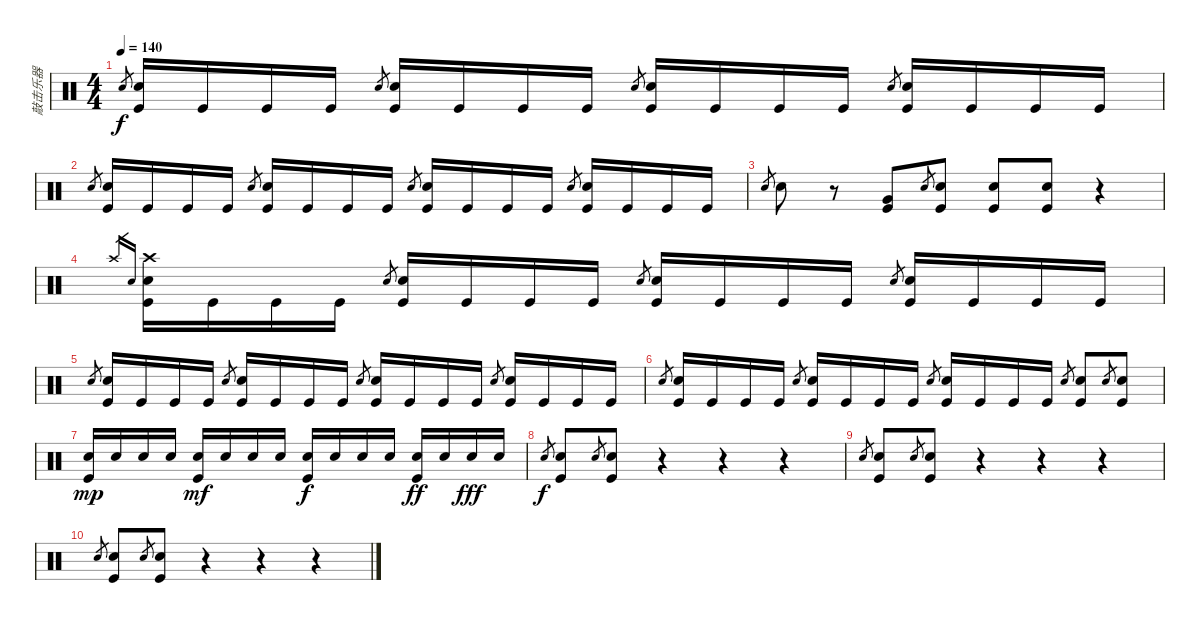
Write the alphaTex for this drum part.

\track ("敲击乐器" "敲击乐器") {instrument percussion}
\staff {score}
\articulation defaults
\ts (4 4)
\tempo 140
\clef neutral
\ks c "Electric Snare (hit)".8{gr dy f}
("Electric Snare (hit)" "Kick (hit)").16 "Kick (hit)".16 "Kick (hit)".16 "Kick (hit)".16 "Electric Snare (hit)".8{gr} ("Electric Snare (hit)" "Kick (hit)").16 "Kick (hit)".16 "Kick (hit)".16 "Kick (hit)".16 "Electric Snare (hit)".8{gr} ("Electric Snare (hit)" "Kick (hit)").16 "Kick (hit)".16 "Kick (hit)".16 "Kick (hit)".16 "Electric Snare (hit)".8{gr} ("Electric Snare (hit)" "Kick (hit)").16 "Kick (hit)".16 "Kick (hit)".16 "Kick (hit)".16 |
"Electric Snare (hit)".8{gr} ("Electric Snare (hit)" "Kick (hit)").16 "Kick (hit)".16 "Kick (hit)".16 "Kick (hit)".16 "Electric Snare (hit)".8{gr} ("Electric Snare (hit)" "Kick (hit)").16 "Kick (hit)".16 "Kick (hit)".16 "Kick (hit)".16 "Electric Snare (hit)".8{gr} ("Electric Snare (hit)" "Kick (hit)").16 "Kick (hit)".16 "Kick (hit)".16 "Kick (hit)".16 "Electric Snare (hit)".8{gr} ("Electric Snare (hit)" "Kick (hit)").16 "Kick (hit)".16 "Kick (hit)".16 "Kick (hit)".16 |
"Electric Snare (hit)".8{gr} "Electric Snare (hit)".8 r.8 ("Very Low Tom (hit)" "Kick (hit)").8 "Electric Snare (hit)".8{gr} ("Electric Snare (hit)" "Kick (hit)").8 ("Electric Snare (hit)" "Kick (hit)").8 ("Electric Snare (hit)" "Kick (hit)").8 r.4 |
"Crash high (hit)".16{gr} "Electric Snare (hit)".16{gr} ("Crash high (hit)" "Electric Snare (hit)" "Kick (hit)").16 "Kick (hit)".16 "Kick (hit)".16 "Kick (hit)".16 "Electric Snare (hit)".8{gr} ("Electric Snare (hit)" "Kick (hit)").16 "Kick (hit)".16 "Kick (hit)".16 "Kick (hit)".16 "Electric Snare (hit)".8{gr} ("Electric Snare (hit)" "Kick (hit)").16 "Kick (hit)".16 "Kick (hit)".16 "Kick (hit)".16 "Electric Snare (hit)".8{gr} ("Electric Snare (hit)" "Kick (hit)").16 "Kick (hit)".16 "Kick (hit)".16 "Kick (hit)".16 |
"Electric Snare (hit)".8{gr} ("Electric Snare (hit)" "Kick (hit)").16 "Kick (hit)".16 "Kick (hit)".16 "Kick (hit)".16 "Electric Snare (hit)".8{gr} ("Electric Snare (hit)" "Kick (hit)").16 "Kick (hit)".16 "Kick (hit)".16 "Kick (hit)".16 "Electric Snare (hit)".8{gr} ("Electric Snare (hit)" "Kick (hit)").16 "Kick (hit)".16 "Kick (hit)".16 "Kick (hit)".16 "Electric Snare (hit)".8{gr} ("Electric Snare (hit)" "Kick (hit)").16 "Kick (hit)".16 "Kick (hit)".16 "Kick (hit)".16 |
"Electric Snare (hit)".8{gr} ("Electric Snare (hit)" "Kick (hit)").16 "Kick (hit)".16 "Kick (hit)".16 "Kick (hit)".16 "Electric Snare (hit)".8{gr} ("Electric Snare (hit)" "Kick (hit)").16 "Kick (hit)".16 "Kick (hit)".16 "Kick (hit)".16 "Electric Snare (hit)".8{gr} ("Electric Snare (hit)" "Kick (hit)").16 "Kick (hit)".16 "Kick (hit)".16 "Kick (hit)".16 "Electric Snare (hit)".8{gr} ("Electric Snare (hit)" "Kick (hit)").8 "Electric Snare (hit)".8{gr} ("Electric Snare (hit)" "Kick (hit)").8 |
("Electric Snare (hit)" "Kick (hit)").16{dy mp} "Electric Snare (hit)".16 "Electric Snare (hit)".16 "Electric Snare (hit)".16 ("Electric Snare (hit)" "Kick (hit)").16{dy mf} "Electric Snare (hit)".16 "Electric Snare (hit)".16 "Electric Snare (hit)".16 ("Electric Snare (hit)" "Kick (hit)").16{dy f} "Electric Snare (hit)".16 "Electric Snare (hit)".16 "Electric Snare (hit)".16 ("Electric Snare (hit)" "Kick (hit)").16{dy ff} "Electric Snare (hit)".16 "Electric Snare (hit)".16{dy fff} "Electric Snare (hit)".16 |
"Electric Snare (hit)".8{gr dy f} ("Electric Snare (hit)" "Kick (hit)").8 "Electric Snare (hit)".8{gr} ("Electric Snare (hit)" "Kick (hit)").8 r.4 r.4 r.4 |
"Electric Snare (hit)".8{gr} ("Electric Snare (hit)" "Kick (hit)").8 "Electric Snare (hit)".8{gr} ("Electric Snare (hit)" "Kick (hit)").8 r.4 r.4 r.4 |
"Electric Snare (hit)".8{gr} ("Electric Snare (hit)" "Kick (hit)").8 "Electric Snare (hit)".8{gr} ("Electric Snare (hit)" "Kick (hit)").8 r.4 r.4 r.4
